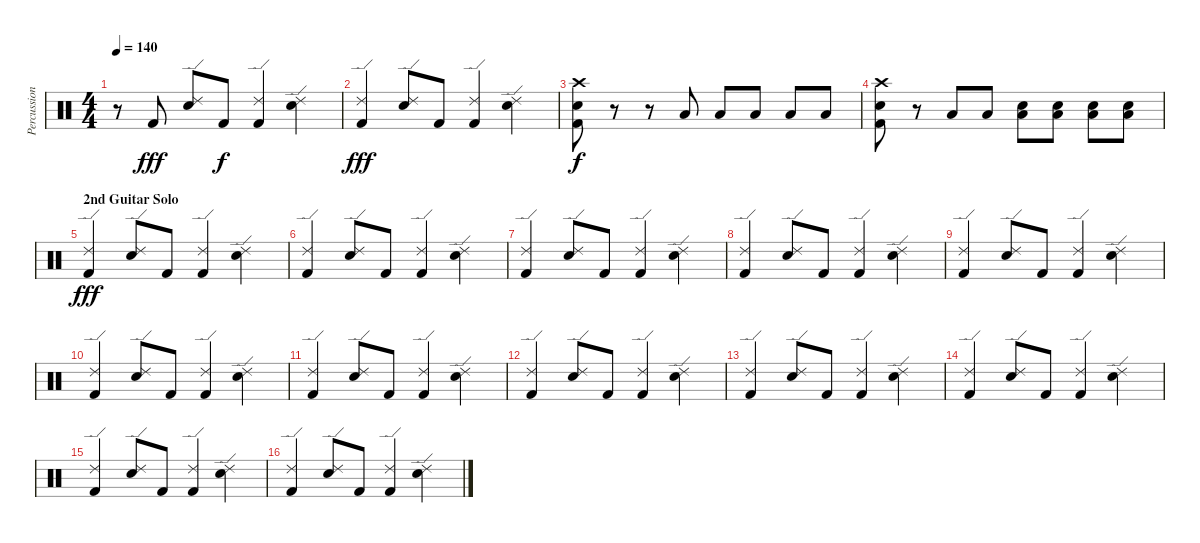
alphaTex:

\track ("Percussion" "Percussion") {instrument percussion}
\staff {score}
\articulation defaults
\ts (4 4)
\tempo 140
\clef neutral
\ks c
r.8{dy fff} "Kick (hit) 2".8 ("Ride (edge) 2" "Electric Snare (hit)").8 "Kick (hit) 2".8{dy f} ("Ride (edge) 2" "Kick (hit) 2").4 ("Ride (edge) 2" "Electric Snare (hit)").4 |
("Ride (edge) 2" "Kick (hit) 2").4{dy fff} ("Ride (edge) 2" "Electric Snare (hit)").8 "Kick (hit) 2".8 ("Ride (edge) 2" "Kick (hit) 2").4 ("Ride (edge) 2" "Electric Snare (hit)").4 |
("Crash high (hit)" "Electric Snare (hit)" "Kick (hit) 2").8{dy f} r.8 r.8 "Low Floor Tom (hit)".8 "Low Floor Tom (hit)".8 "Low Floor Tom (hit)".8 "Low Floor Tom (hit)".8 "Low Floor Tom (hit)".8 |
("Crash high (hit)" "Electric Snare (hit)" "Kick (hit) 2").8 r.8 "Low Floor Tom (hit)".8 "Low Floor Tom (hit)".8 ("Electric Snare (hit)" "Low Floor Tom (hit)").8 ("Electric Snare (hit)" "Low Floor Tom (hit)").8 ("Electric Snare (hit)" "Low Floor Tom (hit)").8 ("Electric Snare (hit)" "Low Floor Tom (hit)").8 |
\section ("" "2nd Guitar Solo")
("Ride (edge) 2" "Kick (hit) 2").4{dy fff} ("Ride (edge) 2" "Electric Snare (hit)").8 "Kick (hit) 2".8 ("Ride (edge) 2" "Kick (hit) 2").4 ("Ride (edge) 2" "Electric Snare (hit)").4 |
("Ride (edge) 2" "Kick (hit) 2").4 ("Ride (edge) 2" "Electric Snare (hit)").8 "Kick (hit) 2".8 ("Ride (edge) 2" "Kick (hit) 2").4 ("Ride (edge) 2" "Electric Snare (hit)").4 |
("Ride (edge) 2" "Kick (hit) 2").4 ("Ride (edge) 2" "Electric Snare (hit)").8 "Kick (hit) 2".8 ("Ride (edge) 2" "Kick (hit) 2").4 ("Ride (edge) 2" "Electric Snare (hit)").4 |
("Ride (edge) 2" "Kick (hit) 2").4 ("Ride (edge) 2" "Electric Snare (hit)").8 "Kick (hit) 2".8 ("Ride (edge) 2" "Kick (hit) 2").4 ("Ride (edge) 2" "Electric Snare (hit)").4 |
("Ride (edge) 2" "Kick (hit) 2").4 ("Ride (edge) 2" "Electric Snare (hit)").8 "Kick (hit) 2".8 ("Ride (edge) 2" "Kick (hit) 2").4 ("Ride (edge) 2" "Electric Snare (hit)").4 |
("Ride (edge) 2" "Kick (hit) 2").4 ("Ride (edge) 2" "Electric Snare (hit)").8 "Kick (hit) 2".8 ("Ride (edge) 2" "Kick (hit) 2").4 ("Ride (edge) 2" "Electric Snare (hit)").4 |
("Ride (edge) 2" "Kick (hit) 2").4 ("Ride (edge) 2" "Electric Snare (hit)").8 "Kick (hit) 2".8 ("Ride (edge) 2" "Kick (hit) 2").4 ("Ride (edge) 2" "Electric Snare (hit)").4 |
("Ride (edge) 2" "Kick (hit) 2").4 ("Ride (edge) 2" "Electric Snare (hit)").8 "Kick (hit) 2".8 ("Ride (edge) 2" "Kick (hit) 2").4 ("Ride (edge) 2" "Electric Snare (hit)").4 |
("Ride (edge) 2" "Kick (hit) 2").4 ("Ride (edge) 2" "Electric Snare (hit)").8 "Kick (hit) 2".8 ("Ride (edge) 2" "Kick (hit) 2").4 ("Ride (edge) 2" "Electric Snare (hit)").4 |
("Ride (edge) 2" "Kick (hit) 2").4 ("Ride (edge) 2" "Electric Snare (hit)").8 "Kick (hit) 2".8 ("Ride (edge) 2" "Kick (hit) 2").4 ("Ride (edge) 2" "Electric Snare (hit)").4 |
("Ride (edge) 2" "Kick (hit) 2").4 ("Ride (edge) 2" "Electric Snare (hit)").8 "Kick (hit) 2".8 ("Ride (edge) 2" "Kick (hit) 2").4 ("Ride (edge) 2" "Electric Snare (hit)").4 |
("Ride (edge) 2" "Kick (hit) 2").4 ("Ride (edge) 2" "Electric Snare (hit)").8 "Kick (hit) 2".8 ("Ride (edge) 2" "Kick (hit) 2").4 ("Ride (edge) 2" "Electric Snare (hit)").4
